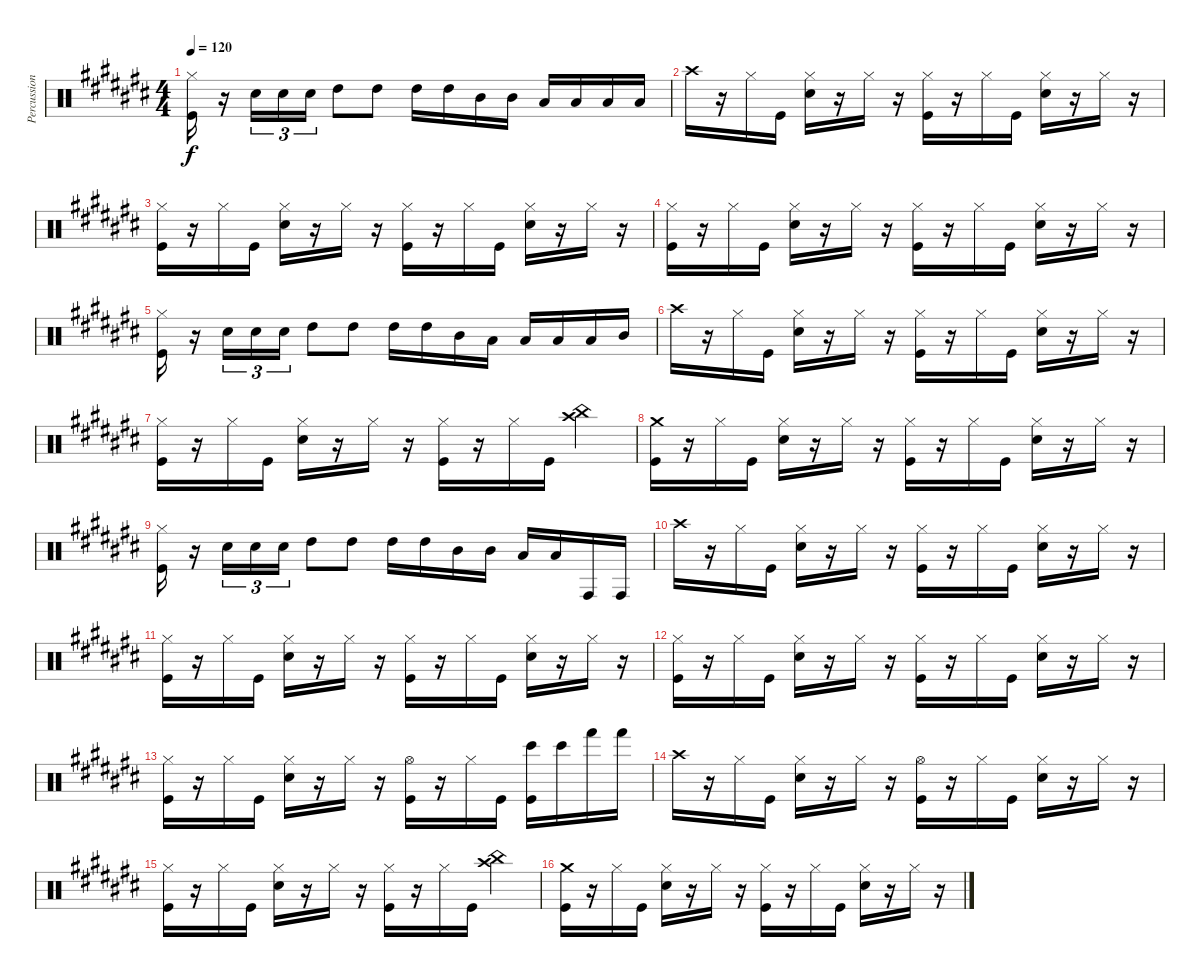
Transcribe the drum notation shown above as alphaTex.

\track ("Percussion" "Percussion") {instrument percussion}
\staff {score}
\articulation defaults
\ts (4 4)
\tempo 120
\clef neutral
\ks c#
("Hi-Hat (closed)" "Kick (hit)").16{dy f} r.16 "Snare (hit) 2".16{tu (3 2)} "Snare (hit) 2".16{tu (3 2)} "Snare (hit) 2".16{tu (3 2)} "High Tom (hit)".8 "High Tom (hit)".8 "High Tom (hit)".16 "High Tom (hit)".16 "Mid Tom (hit)".16 "Mid Tom (hit)".16 "Low Tom (hit)".16 "Low Tom (hit)".16 "Low Floor Tom (hit)".16 "Low Floor Tom (hit)".16 |
"Crash high (hit)".16 r.16 "Hi-Hat (closed)".16 "Kick (hit)".16 ("Hi-Hat (closed)" "Snare (hit) 2").16 r.16 "Hi-Hat (closed)".16 r.16 ("Hi-Hat (closed)" "Kick (hit)").16 r.16 "Hi-Hat (closed)".16 "Kick (hit)".16 ("Hi-Hat (closed)" "Snare (hit) 2").16 r.16 "Hi-Hat (closed)".16 r.16 |
("Hi-Hat (closed)" "Kick (hit)").16 r.16 "Hi-Hat (closed)".16 "Kick (hit)".16 ("Hi-Hat (closed)" "Snare (hit) 2").16 r.16 "Hi-Hat (closed)".16 r.16 ("Hi-Hat (closed)" "Kick (hit)").16 r.16 "Hi-Hat (closed)".16 "Kick (hit)".16 ("Hi-Hat (closed)" "Snare (hit) 2").16 r.16 "Hi-Hat (closed)".16 r.16 |
("Hi-Hat (closed)" "Kick (hit)").16 r.16 "Hi-Hat (closed)".16 "Kick (hit)".16 ("Hi-Hat (closed)" "Snare (hit) 2").16 r.16 "Hi-Hat (closed)".16 r.16 ("Hi-Hat (closed)" "Kick (hit)").16 r.16 "Hi-Hat (closed)".16 "Kick (hit)".16 ("Hi-Hat (closed)" "Snare (hit) 2").16 r.16 "Hi-Hat (closed)".16 r.16 |
("Hi-Hat (closed)" "Kick (hit)").16 r.16 "Snare (hit) 2".16{tu (3 2)} "Snare (hit) 2".16{tu (3 2)} "Snare (hit) 2".16{tu (3 2)} "High Tom (hit)".8 "High Tom (hit)".8 "High Tom (hit)".16 "High Tom (hit)".16 "Mid Tom (hit)".16 "Low Tom (hit)".16 "Low Tom (hit)".16 "Low Floor Tom (hit)".16 "Low Floor Tom (hit)".16 "Mid Tom (hit)".16 |
"Crash high (hit)".16 r.16 "Hi-Hat (closed)".16 "Kick (hit)".16 ("Hi-Hat (closed)" "Snare (hit) 2").16 r.16 "Hi-Hat (closed)".16 r.16 ("Hi-Hat (closed)" "Kick (hit)").16 r.16 "Hi-Hat (closed)".16 "Kick (hit)".16 ("Hi-Hat (closed)" "Snare (hit) 2").16 r.16 "Hi-Hat (closed)".16 r.16 |
("Hi-Hat (closed)" "Kick (hit)").16 r.16 "Hi-Hat (closed)".16 "Kick (hit)".16 ("Hi-Hat (closed)" "Snare (hit) 2").16 r.16 "Hi-Hat (closed)".16 r.16 ("Hi-Hat (closed)" "Kick (hit)").16 r.16 "Hi-Hat (closed)".16 "Kick (hit)".16 ("Crash high (hit)" "China (hit)").4 |
("Crash medium (hit)" "Kick (hit)").16 r.16 "Hi-Hat (closed)".16 "Kick (hit)".16 ("Hi-Hat (closed)" "Snare (hit) 2").16 r.16 "Hi-Hat (closed)".16 r.16 ("Hi-Hat (closed)" "Kick (hit)").16 r.16 "Hi-Hat (closed)".16 "Kick (hit)".16 ("Hi-Hat (closed)" "Snare (hit) 2").16 r.16 "Hi-Hat (closed)".16 r.16 |
("Hi-Hat (closed)" "Kick (hit)").16 r.16 "Snare (hit) 2".16{tu (3 2)} "Snare (hit) 2".16{tu (3 2)} "Snare (hit) 2".16{tu (3 2)} "High Tom (hit)".8 "High Tom (hit)".8 "High Tom (hit)".16 "High Tom (hit)".16 "Mid Tom (hit)".16 "Mid Tom (hit)".16 "Low Tom (hit)".16 "Low Tom (hit)".16 "Conga high (hit)".16 "Conga high (hit)".16 |
"Crash high (hit)".16 r.16 "Hi-Hat (closed)".16 "Kick (hit)".16 ("Hi-Hat (closed)" "Snare (hit) 2").16 r.16 "Hi-Hat (closed)".16 r.16 ("Hi-Hat (closed)" "Kick (hit)").16 r.16 "Hi-Hat (closed)".16 "Kick (hit)".16 ("Hi-Hat (closed)" "Snare (hit) 2").16 r.16 "Hi-Hat (closed)".16 r.16 |
("Hi-Hat (closed)" "Kick (hit)").16 r.16 "Hi-Hat (closed)".16 "Kick (hit)".16 ("Hi-Hat (closed)" "Snare (hit) 2").16 r.16 "Hi-Hat (closed)".16 r.16 ("Hi-Hat (closed)" "Kick (hit)").16 r.16 "Hi-Hat (closed)".16 "Kick (hit)".16 ("Hi-Hat (closed)" "Snare (hit) 2").16 r.16 "Hi-Hat (closed)".16 r.16 |
("Hi-Hat (closed)" "Kick (hit)").16 r.16 "Hi-Hat (closed)".16 "Kick (hit)".16 ("Hi-Hat (closed)" "Snare (hit) 2").16 r.16 "Hi-Hat (closed)".16 r.16 ("Hi-Hat (closed)" "Kick (hit)").16 r.16 "Hi-Hat (closed)".16 "Kick (hit)".16 ("Hi-Hat (closed)" "Snare (hit) 2").16 r.16 "Hi-Hat (closed)".16 r.16 |
("Hi-Hat (closed)" "Kick (hit)").16 r.16 "Hi-Hat (closed)".16 "Kick (hit)".16 ("Hi-Hat (closed)" "Snare (hit) 2").16 r.16 "Hi-Hat (closed)".16 r.16 ("Hi-Hat (open)" "Kick (hit)").16 r.16 "Hi-Hat (closed)".16 "Kick (hit)".16 ("Bongo High (hit)" "Kick (hit)").16 "Bongo High (hit)".16 "Hand (hit)".16 "Hand (hit)".16 |
"Crash high (hit)".16 r.16 "Hi-Hat (closed)".16 "Kick (hit)".16 ("Hi-Hat (closed)" "Snare (hit) 2").16 r.16 "Hi-Hat (closed)".16 r.16 ("Hi-Hat (open)" "Kick (hit)").16 r.16 "Hi-Hat (closed)".16 "Kick (hit)".16 ("Hi-Hat (closed)" "Snare (hit) 2").16 r.16 "Hi-Hat (closed)".16 r.16 |
("Hi-Hat (closed)" "Kick (hit)").16 r.16 "Hi-Hat (closed)".16 "Kick (hit)".16 ("Hi-Hat (closed)" "Snare (hit) 2").16 r.16 "Hi-Hat (closed)".16 r.16 ("Hi-Hat (closed)" "Kick (hit)").16 r.16 "Hi-Hat (closed)".16 "Kick (hit)".16 ("Crash high (hit)" "China (hit)").4 |
("Crash medium (hit)" "Kick (hit)").16 r.16 "Hi-Hat (closed)".16 "Kick (hit)".16 ("Hi-Hat (closed)" "Snare (hit) 2").16 r.16 "Hi-Hat (closed)".16 r.16 ("Hi-Hat (closed)" "Kick (hit)").16 r.16 "Hi-Hat (closed)".16 "Kick (hit)".16 ("Hi-Hat (closed)" "Snare (hit) 2").16 r.16 "Hi-Hat (closed)".16 r.16
